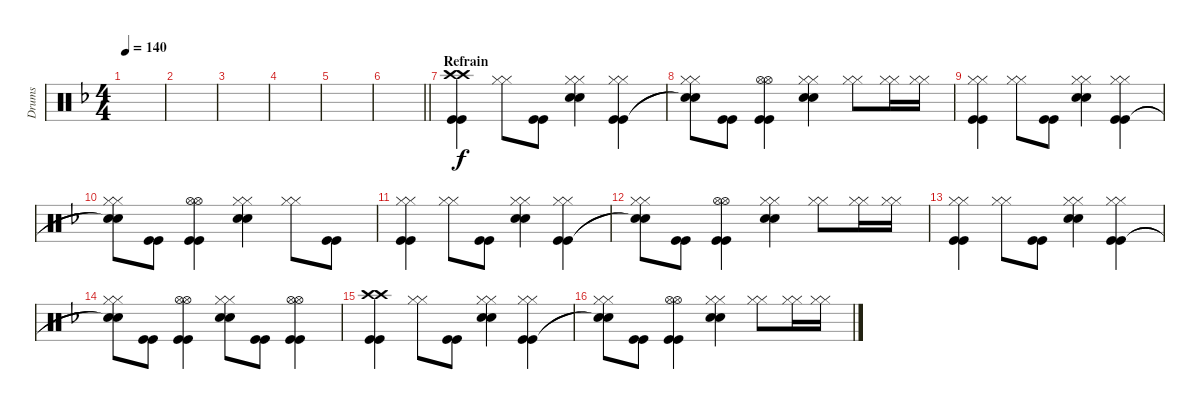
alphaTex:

\track ("Drums" "Drums") {instrument percussion}
\staff {score}
\articulation defaults
\ts (4 4)
\tempo 140
\clef neutral
\ks f
|
|
|
|
|
\barLineRight lightlight
|
\section ("" "Refrain")
("Crash high (hit)" "Crash high (hit)" "Kick (hit)" "Kick (hit)").4 ("Hi-Hat (closed)" "Hi-Hat (closed)").8 ("Kick (hit)" "Kick (hit)").8 ("Hi-Hat (closed)" "Hi-Hat (closed)" "Snare (hit) 2" "Snare (hit) 2").4 ("Hi-Hat (closed)" "Hi-Hat (closed)" "Kick (hit)" "Kick (hit)").4 |
("Hi-Hat (closed)" "Hi-Hat (closed)" "Snare (hit)"{t} "Snare (hit)"{t}).8 ("Kick (hit)" "Kick (hit)").8 ("Hi-Hat (open)" "Hi-Hat (open)" "Kick (hit)" "Kick (hit)").4 ("Hi-Hat (closed)" "Hi-Hat (closed)" "Snare (hit) 2" "Snare (hit) 2").4 ("Hi-Hat (closed)" "Hi-Hat (closed)").8 ("Hi-Hat (closed)" "Hi-Hat (closed)").16 ("Hi-Hat (closed)" "Hi-Hat (closed)").16 |
("Hi-Hat (closed)" "Hi-Hat (closed)" "Kick (hit)" "Kick (hit)").4 ("Hi-Hat (closed)" "Hi-Hat (closed)").8 ("Kick (hit)" "Kick (hit)").8 ("Hi-Hat (closed)" "Hi-Hat (closed)" "Snare (hit) 2" "Snare (hit) 2").4 ("Hi-Hat (closed)" "Hi-Hat (closed)" "Kick (hit)" "Kick (hit)").4 |
("Hi-Hat (closed)" "Hi-Hat (closed)" "Snare (hit)"{t} "Snare (hit)"{t}).8 ("Kick (hit)" "Kick (hit)").8 ("Hi-Hat (open)" "Hi-Hat (open)" "Kick (hit)" "Kick (hit)").4 ("Hi-Hat (closed)" "Hi-Hat (closed)" "Snare (hit) 2" "Snare (hit) 2").4 ("Hi-Hat (closed)" "Hi-Hat (closed)").8 ("Kick (hit)" "Kick (hit)").8 |
("Hi-Hat (closed)" "Hi-Hat (closed)" "Kick (hit)" "Kick (hit)").4 ("Hi-Hat (closed)" "Hi-Hat (closed)").8 ("Kick (hit)" "Kick (hit)").8 ("Hi-Hat (closed)" "Hi-Hat (closed)" "Snare (hit) 2" "Snare (hit) 2").4 ("Hi-Hat (closed)" "Hi-Hat (closed)" "Kick (hit)" "Kick (hit)").4 |
("Hi-Hat (closed)" "Hi-Hat (closed)" "Snare (hit)"{t} "Snare (hit)"{t}).8 ("Kick (hit)" "Kick (hit)").8 ("Hi-Hat (open)" "Hi-Hat (open)" "Kick (hit)" "Kick (hit)").4 ("Hi-Hat (closed)" "Hi-Hat (closed)" "Snare (hit) 2" "Snare (hit) 2").4 ("Hi-Hat (closed)" "Hi-Hat (closed)").8 ("Hi-Hat (closed)" "Hi-Hat (closed)").16 ("Hi-Hat (closed)" "Hi-Hat (closed)").16 |
("Hi-Hat (closed)" "Hi-Hat (closed)" "Kick (hit)" "Kick (hit)").4 ("Hi-Hat (closed)" "Hi-Hat (closed)").8 ("Kick (hit)" "Kick (hit)").8 ("Hi-Hat (closed)" "Hi-Hat (closed)" "Snare (hit) 2" "Snare (hit) 2").4 ("Hi-Hat (closed)" "Hi-Hat (closed)" "Kick (hit)" "Kick (hit)").4 |
("Hi-Hat (closed)" "Hi-Hat (closed)" "Snare (hit)"{t} "Snare (hit)"{t}).8 ("Kick (hit)" "Kick (hit)").8 ("Hi-Hat (open)" "Hi-Hat (open)" "Kick (hit)" "Kick (hit)").4 ("Hi-Hat (closed)" "Hi-Hat (closed)" "Snare (hit) 2" "Snare (hit) 2").8 ("Kick (hit)" "Kick (hit)").8 ("Hi-Hat (open)" "Hi-Hat (open)" "Kick (hit)" "Kick (hit)").4 |
("Crash high (hit)" "Crash high (hit)" "Kick (hit)" "Kick (hit)").4 ("Hi-Hat (closed)" "Hi-Hat (closed)").8 ("Kick (hit)" "Kick (hit)").8 ("Hi-Hat (closed)" "Hi-Hat (closed)" "Snare (hit) 2" "Snare (hit) 2").4 ("Hi-Hat (closed)" "Hi-Hat (closed)" "Kick (hit)" "Kick (hit)").4 |
("Hi-Hat (closed)" "Hi-Hat (closed)" "Snare (hit)"{t} "Snare (hit)"{t}).8 ("Kick (hit)" "Kick (hit)").8 ("Hi-Hat (open)" "Hi-Hat (open)" "Kick (hit)" "Kick (hit)").4 ("Hi-Hat (closed)" "Hi-Hat (closed)" "Snare (hit) 2" "Snare (hit) 2").4 ("Hi-Hat (closed)" "Hi-Hat (closed)").8 ("Hi-Hat (closed)" "Hi-Hat (closed)").16 ("Hi-Hat (closed)" "Hi-Hat (closed)").16
